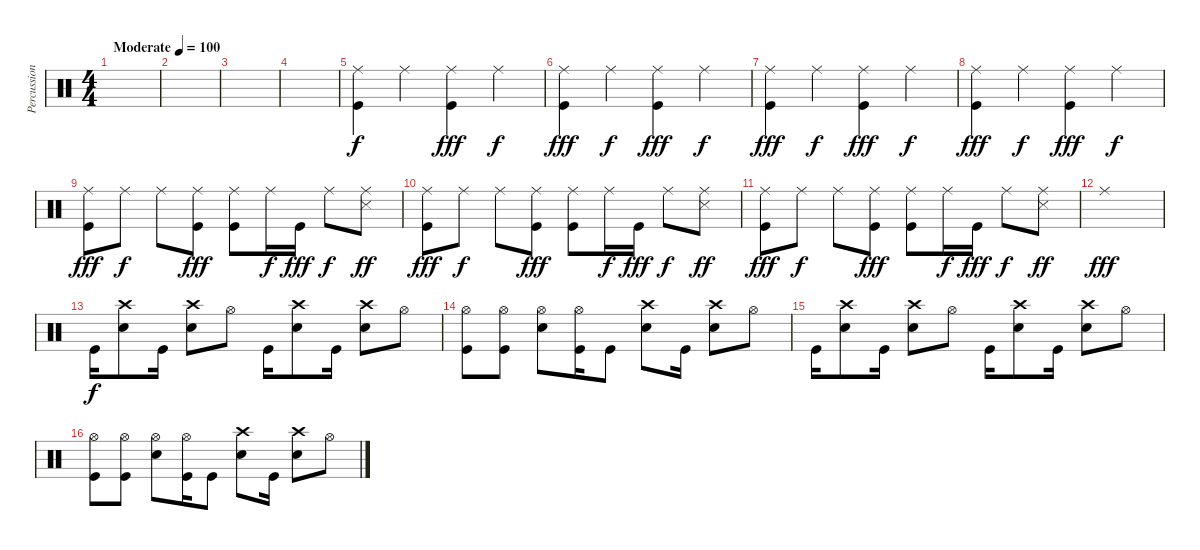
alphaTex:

\track ("Percussion" "Percussion") {instrument percussion}
\staff {score}
\articulation defaults
\ts (4 4)
\tempo (100 "Moderate")
\clef neutral
\ks c
|
|
|
|
("Ride (middle)" "Kick (hit)").4 "Ride (middle)".4{dy f} ("Ride (middle)" "Kick (hit)").4{dy fff} "Ride (middle)".4{dy f} |
("Ride (middle)" "Kick (hit)").4{dy fff} "Ride (middle)".4{dy f} ("Ride (middle)" "Kick (hit)").4{dy fff} "Ride (middle)".4{dy f} |
("Ride (middle)" "Kick (hit)").4{dy fff} "Ride (middle)".4{dy f} ("Ride (middle)" "Kick (hit)").4{dy fff} "Ride (middle)".4{dy f} |
("Ride (middle)" "Kick (hit)").4{dy fff} "Ride (middle)".4{dy f} ("Ride (middle)" "Kick (hit)").4{dy fff} "Ride (middle)".4{dy f} |
("Ride (middle)" "Kick (hit)").8{dy fff} "Ride (middle)".8{dy f} "Ride (middle)".8 ("Ride (middle)" "Kick (hit)").8{dy fff} ("Ride (middle)" "Kick (hit)").8 "Ride (middle)".16{dy f} "Kick (hit)".16{dy fff} "Ride (middle)".8{dy f} ("Ride (middle)" "Snare (side stick) 3").8{dy ff} |
("Ride (middle)" "Kick (hit)").8{dy fff} "Ride (middle)".8{dy f} "Ride (middle)".8 ("Ride (middle)" "Kick (hit)").8{dy fff} ("Ride (middle)" "Kick (hit)").8 "Ride (middle)".16{dy f} "Kick (hit)".16{dy fff} "Ride (middle)".8{dy f} ("Ride (middle)" "Snare (side stick) 3").8{dy ff} |
("Ride (middle)" "Kick (hit)").8{dy fff} "Ride (middle)".8{dy f} "Ride (middle)".8 ("Ride (middle)" "Kick (hit)").8{dy fff} ("Ride (middle)" "Kick (hit)").8 "Ride (middle)".16{dy f} "Kick (hit)".16{dy fff} "Ride (middle)".8{dy f} ("Ride (middle)" "Snare (side stick) 3").8{dy ff} |
"Ride (middle)".1{dy fff} |
"Kick (hit)".16{dy f} ("Crash high (hit)" "Electric Snare (hit)").8 "Kick (hit)".16 ("Crash high (hit)" "Electric Snare (hit)").8 "Hi-Hat (open)".8 "Kick (hit)".16 ("Crash high (hit)" "Electric Snare (hit)").8 "Kick (hit)".16 ("Crash high (hit)" "Electric Snare (hit)").8 "Hi-Hat (open)".8 |
("Hi-Hat (open)" "Kick (hit)").8 ("Hi-Hat (open)" "Kick (hit)").8 ("Hi-Hat (open)" "Electric Snare (hit)").8 ("Hi-Hat (open)" "Kick (hit)").16 "Kick (hit)".8 ("Crash high (hit)" "Electric Snare (hit)").8 "Kick (hit)".16 ("Crash high (hit)" "Electric Snare (hit)").8 "Hi-Hat (open)".8 |
"Kick (hit)".16 ("Crash high (hit)" "Electric Snare (hit)").8 "Kick (hit)".16 ("Crash high (hit)" "Electric Snare (hit)").8 "Hi-Hat (open)".8 "Kick (hit)".16 ("Crash high (hit)" "Electric Snare (hit)").8 "Kick (hit)".16 ("Crash high (hit)" "Electric Snare (hit)").8 "Hi-Hat (open)".8 |
("Hi-Hat (open)" "Kick (hit)").8 ("Hi-Hat (open)" "Kick (hit)").8 ("Hi-Hat (open)" "Electric Snare (hit)").8 ("Hi-Hat (open)" "Kick (hit)").16 "Kick (hit)".8 ("Crash high (hit)" "Electric Snare (hit)").8 "Kick (hit)".16 ("Crash high (hit)" "Electric Snare (hit)").8 "Hi-Hat (open)".8
